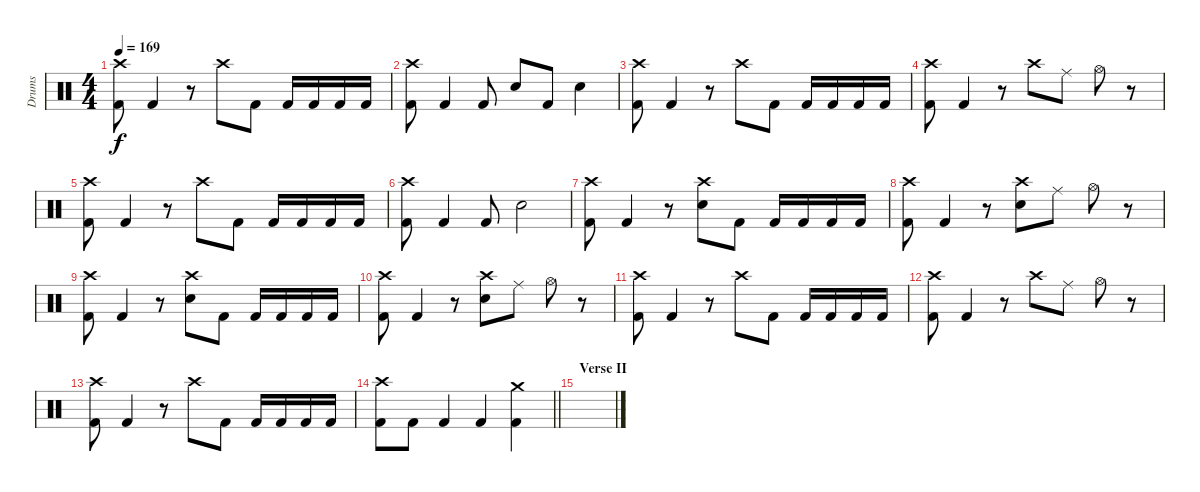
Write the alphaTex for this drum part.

\track ("Drums" "Drums") {instrument percussion}
\staff {score}
\articulation defaults
\ts (4 4)
\tempo 169
\clef neutral
\ks c
("Crash high (hit)" "Kick (hit) 2").8{dy f} "Kick (hit) 2".4 r.8 "Crash high (hit)".8 "Kick (hit) 2".8 "Kick (hit) 2".16 "Kick (hit) 2".16 "Kick (hit) 2".16 "Kick (hit) 2".16 |
("Crash high (hit)" "Kick (hit) 2").8 "Kick (hit) 2".4 "Kick (hit) 2".8 "Electric Snare (hit)".8 "Kick (hit) 2".8 "Electric Snare (hit)".4 |
("Crash high (hit)" "Kick (hit) 2").8 "Kick (hit) 2".4 r.8 "Crash high (hit)".8 "Kick (hit) 2".8 "Kick (hit) 2".16 "Kick (hit) 2".16 "Kick (hit) 2".16 "Kick (hit) 2".16 |
("Crash high (hit)" "Kick (hit) 2").8 "Kick (hit) 2".4 r.8 "Crash high (hit)".8 "Ride (middle)".8 "Hi-Hat (open)".8 r.8 |
("Crash high (hit)" "Kick (hit) 2").8 "Kick (hit) 2".4 r.8 "Crash high (hit)".8 "Kick (hit) 2".8 "Kick (hit) 2".16 "Kick (hit) 2".16 "Kick (hit) 2".16 "Kick (hit) 2".16 |
("Crash high (hit)" "Kick (hit) 2").8 "Kick (hit) 2".4 "Kick (hit) 2".8 "Electric Snare (hit)".2 |
("Crash high (hit)" "Kick (hit) 2").8 "Kick (hit) 2".4 r.8 ("Crash high (hit)" "Electric Snare (hit)").8 "Kick (hit) 2".8 "Kick (hit) 2".16 "Kick (hit) 2".16 "Kick (hit) 2".16 "Kick (hit) 2".16 |
("Crash high (hit)" "Kick (hit) 2").8 "Kick (hit) 2".4 r.8 ("Crash high (hit)" "Electric Snare (hit)").8 "Ride (middle)".8 "Hi-Hat (open)".8 r.8 |
("Crash high (hit)" "Kick (hit) 2").8 "Kick (hit) 2".4 r.8 ("Crash high (hit)" "Electric Snare (hit)").8 "Kick (hit) 2".8 "Kick (hit) 2".16 "Kick (hit) 2".16 "Kick (hit) 2".16 "Kick (hit) 2".16 |
("Crash high (hit)" "Kick (hit) 2").8 "Kick (hit) 2".4 r.8 ("Crash high (hit)" "Electric Snare (hit)").8 "Ride (middle)".8 "Hi-Hat (open)".8 r.8 |
("Crash high (hit)" "Kick (hit) 2").8 "Kick (hit) 2".4 r.8 "Crash high (hit)".8 "Kick (hit) 2".8 "Kick (hit) 2".16 "Kick (hit) 2".16 "Kick (hit) 2".16 "Kick (hit) 2".16 |
("Crash high (hit)" "Kick (hit) 2").8 "Kick (hit) 2".4 r.8 "Crash high (hit)".8 "Ride (middle)".8 "Hi-Hat (open)".8 r.8 |
("Crash high (hit)" "Kick (hit) 2").8 "Kick (hit) 2".4 r.8 "Crash high (hit)".8 "Kick (hit) 2".8 "Kick (hit) 2".16 "Kick (hit) 2".16 "Kick (hit) 2".16 "Kick (hit) 2".16 |
\barLineRight lightlight
("Crash high (hit)" "Kick (hit) 2").8 "Kick (hit) 2".8 "Kick (hit) 2".4 "Kick (hit) 2".4 ("Crash medium (hit)" "Kick (hit) 2").4 |
\section ("" "Verse II")
